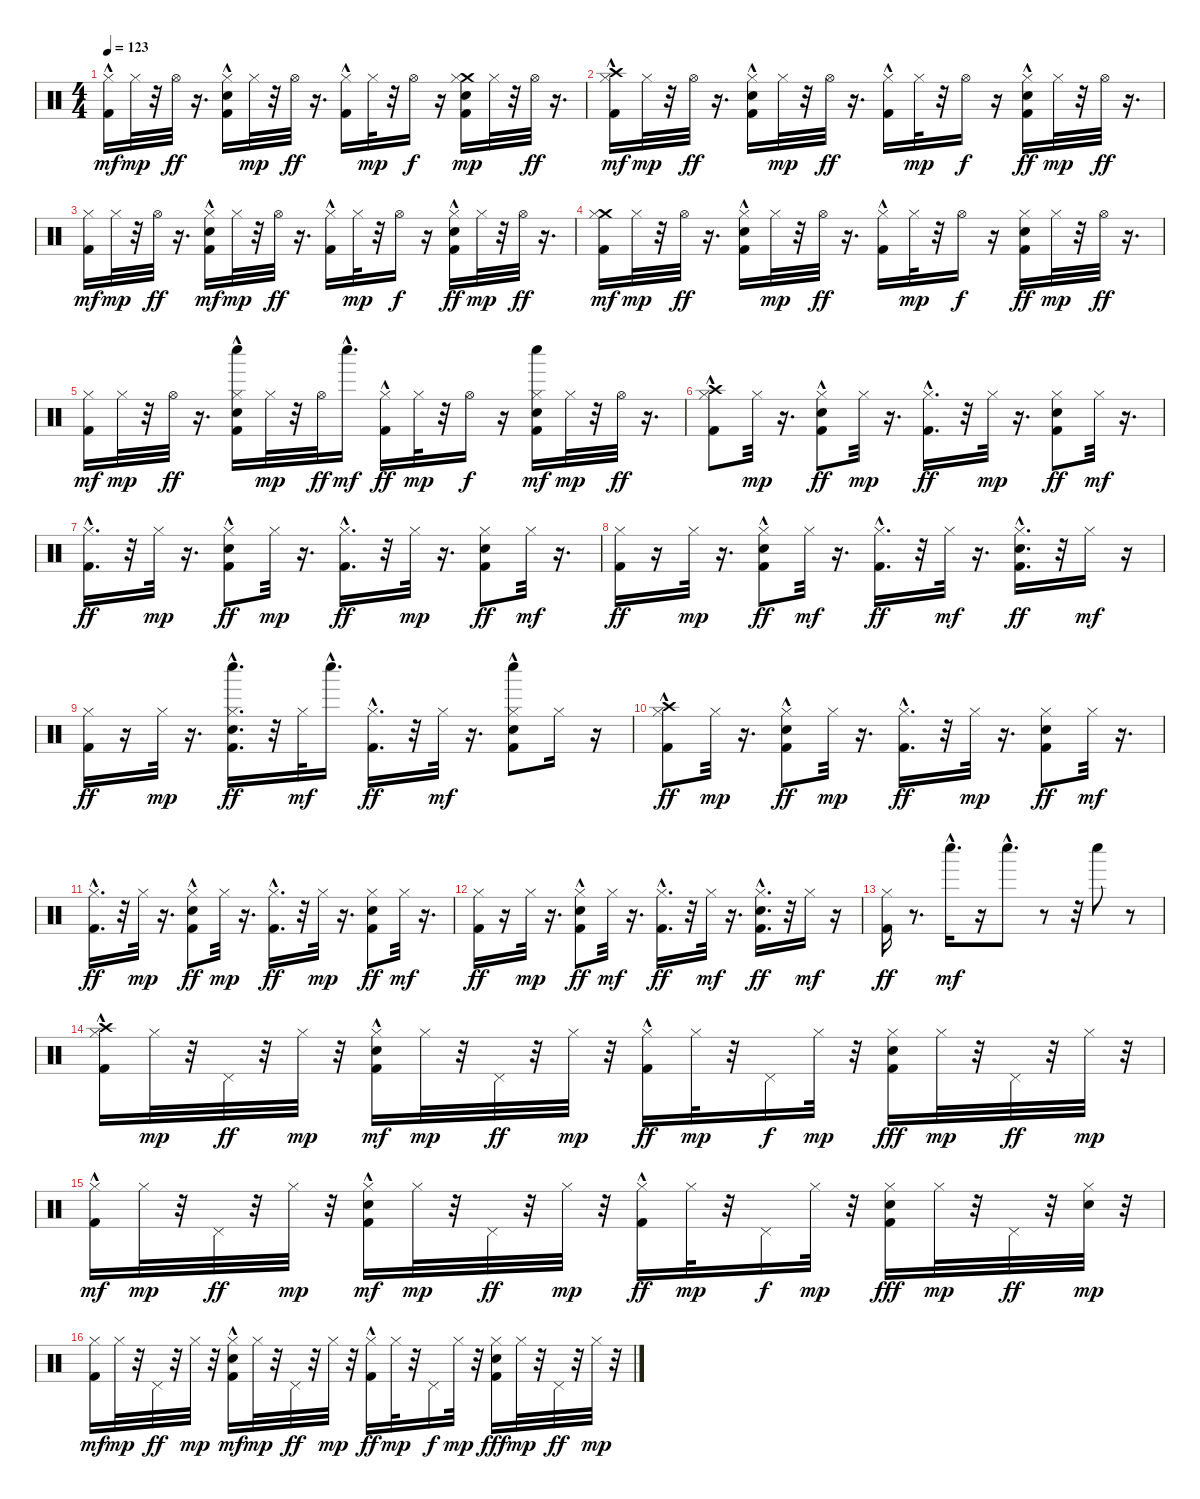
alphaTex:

\track "" {instrument percussion}
\staff {score}
\articulation defaults
\ts (4 4)
\tempo 123
\clef neutral
\ks c
("Kick (hit) 2"{hac} "Hi-Hat (closed)").16{dy mf} "Hi-Hat (closed)".32{dy mp} r.32 "Hi-Hat (open)".32{dy ff} r.16{d} ("Kick (hit) 2"{hac} "Hi-Hat (closed)" "Snare (hit) 2").16 "Hi-Hat (closed)".32{dy mp} r.32 "Hi-Hat (open)".32{dy ff} r.16{d} ("Kick (hit) 2"{hac} "Hi-Hat (closed)").16 "Hi-Hat (closed)".32{dy mp} r.32 "Hi-Hat (open)".16{dy f} r.16 ("Snare (hit) 2" "Kick (hit) 2" "Crash medium (hit)" "Hi-Hat (closed)").16{dy mp} "Hi-Hat (closed)".32 r.32 "Hi-Hat (open)".32{dy ff} r.16{d} |
("Kick (hit) 2"{hac} "Crash high (hit)" "Hi-Hat (closed)").16{dy mf} "Hi-Hat (closed)".32{dy mp} r.32 "Hi-Hat (open)".32{dy ff} r.16{d} ("Kick (hit) 2"{hac} "Hi-Hat (closed)" "Snare (hit) 2").16 "Hi-Hat (closed)".32{dy mp} r.32 "Hi-Hat (open)".32{dy ff} r.16{d} ("Kick (hit) 2"{hac} "Hi-Hat (closed)").16 "Hi-Hat (closed)".32{dy mp} r.32 "Hi-Hat (open)".16{dy f} r.16 ("Snare (hit) 2"{hac} "Kick (hit) 2" "Hi-Hat (closed)").16{dy ff} "Hi-Hat (closed)".32{dy mp} r.32 "Hi-Hat (open)".32{dy ff} r.16{d} |
("Kick (hit) 2" "Hi-Hat (closed)").16{dy mf} "Hi-Hat (closed)".32{dy mp} r.32 "Hi-Hat (open)".32{dy ff} r.16{d} ("Kick (hit) 2"{hac} "Snare (hit) 2"{hac} "Hi-Hat (closed)").16{dy mf} "Hi-Hat (closed)".32{dy mp} r.32 "Hi-Hat (open)".32{dy ff} r.16{d} ("Kick (hit) 2"{hac} "Hi-Hat (closed)").16 "Hi-Hat (closed)".32{dy mp} r.32 "Hi-Hat (open)".16{dy f} r.16 ("Snare (hit) 2"{hac} "Kick (hit) 2" "Hi-Hat (closed)").16{dy ff} "Hi-Hat (closed)".32{dy mp} r.32 "Hi-Hat (open)".32{dy ff} r.16{d} |
("Kick (hit) 2" "Crash medium (hit)" "Hi-Hat (closed)").16{dy mf} "Hi-Hat (closed)".32{dy mp} r.32 "Hi-Hat (open)".32{dy ff} r.16{d} ("Kick (hit) 2"{hac} "Hi-Hat (closed)" "Snare (hit) 2"{hac}).16 "Hi-Hat (closed)".32{dy mp} r.32 "Hi-Hat (open)".32{dy ff} r.16{d} ("Kick (hit) 2"{hac} "Hi-Hat (closed)").16 "Hi-Hat (closed)".32{dy mp} r.32 "Hi-Hat (open)".16{dy f} r.16 ("Snare (hit) 2" "Kick (hit) 2" "Hi-Hat (closed)").16{dy ff} "Hi-Hat (closed)".32{dy mp} r.32 "Hi-Hat (open)".32{dy ff} r.16{d} |
("Kick (hit) 2" "Hi-Hat (closed)").16{dy mf} "Hi-Hat (closed)".32{dy mp} r.32 "Hi-Hat (open)".32{dy ff} r.16{d} ("Whistle low (hit)"{hac} "Kick (hit) 2"{hac} "Hi-Hat (closed)" "Snare (hit) 2"{hac}).16 "Hi-Hat (closed)".32{dy mp} r.32 "Hi-Hat (open)".32{dy ff} "Whistle low (hit)"{hac}.16{d dy mf} ("Kick (hit) 2"{hac} "Hi-Hat (closed)").16{dy ff} "Hi-Hat (closed)".32{dy mp} r.32 "Hi-Hat (open)".16{dy f} r.16 ("Snare (hit) 2" "Kick (hit) 2" "Hi-Hat (closed)" "Whistle low (hit)").16{dy mf} "Hi-Hat (closed)".32{dy mp} r.32 "Hi-Hat (open)".32{dy ff} r.16{d} |
("Kick (hit) 2"{hac} "Crash high (hit)" "Hi-Hat (closed)").8 "Hi-Hat (closed)".32{dy mp} r.16{d} ("Kick (hit) 2"{hac} "Snare (hit) 2" "Hi-Hat (closed)").8{dy ff} "Hi-Hat (closed)".32{dy mp} r.16{d} ("Kick (hit) 2"{hac} "Hi-Hat (closed)").16{d dy ff} r.32 "Hi-Hat (closed)".32{dy mp} r.16{d} ("Kick (hit) 2" "Snare (hit) 2" "Hi-Hat (closed)").8{dy ff} "Hi-Hat (closed)".32{dy mf} r.16{d} |
("Kick (hit) 2"{hac} "Hi-Hat (closed)").16{d dy ff} r.32 "Hi-Hat (closed)".32{dy mp} r.16{d} ("Kick (hit) 2"{hac} "Snare (hit) 2" "Hi-Hat (closed)").8{dy ff} "Hi-Hat (closed)".32{dy mp} r.16{d} ("Kick (hit) 2"{hac} "Hi-Hat (closed)").16{d dy ff} r.32 "Hi-Hat (closed)".32{dy mp} r.16{d} ("Kick (hit) 2" "Snare (hit) 2" "Hi-Hat (closed)").8{dy ff} "Hi-Hat (closed)".32{dy mf} r.16{d} |
("Kick (hit) 2" "Hi-Hat (closed)").16{dy ff} r.16 "Hi-Hat (closed)".32{dy mp} r.16{d} ("Kick (hit) 2"{hac} "Snare (hit) 2" "Hi-Hat (closed)").8{dy ff} "Hi-Hat (closed)".32{dy mf} r.16{d} ("Kick (hit) 2"{hac} "Hi-Hat (closed)").16{d dy ff} r.32 "Hi-Hat (closed)".32{dy mf} r.16{d} ("Kick (hit) 2" "Snare (hit) 2"{hac} "Hi-Hat (closed)").16{d dy ff} r.32 "Hi-Hat (closed)".16{dy mf} r.16 |
("Kick (hit) 2" "Hi-Hat (closed)").16{dy ff} r.16 "Hi-Hat (closed)".32{dy mp} r.16{d} ("Whistle low (hit)"{hac} "Kick (hit) 2"{hac} "Snare (hit) 2"{hac} "Hi-Hat (closed)").16{d dy ff} r.32 "Hi-Hat (closed)".32{dy mf} "Whistle low (hit)"{hac}.16{d} ("Kick (hit) 2"{hac} "Hi-Hat (closed)").16{d dy ff} r.32 "Hi-Hat (closed)".32{dy mf} r.16{d} ("Kick (hit) 2" "Snare (hit) 2"{hac} "Hi-Hat (closed)" "Whistle low (hit)").8 "Hi-Hat (closed)".16 r.16 |
("Kick (hit) 2"{hac} "Crash high (hit)" "Hi-Hat (closed)").8{dy ff} "Hi-Hat (closed)".32{dy mp} r.16{d} ("Kick (hit) 2"{hac} "Snare (hit) 2" "Hi-Hat (closed)").8{dy ff} "Hi-Hat (closed)".32{dy mp} r.16{d} ("Kick (hit) 2"{hac} "Hi-Hat (closed)").16{d dy ff} r.32 "Hi-Hat (closed)".32{dy mp} r.16{d} ("Kick (hit) 2" "Snare (hit) 2" "Hi-Hat (closed)").8{dy ff} "Hi-Hat (closed)".32{dy mf} r.16{d} |
("Kick (hit) 2"{hac} "Hi-Hat (closed)").16{d dy ff} r.32 "Hi-Hat (closed)".32{dy mp} r.16{d} ("Kick (hit) 2"{hac} "Snare (hit) 2" "Hi-Hat (closed)").8{dy ff} "Hi-Hat (closed)".32{dy mp} r.16{d} ("Kick (hit) 2"{hac} "Hi-Hat (closed)").16{d dy ff} r.32 "Hi-Hat (closed)".32{dy mp} r.16{d} ("Kick (hit) 2" "Snare (hit) 2" "Hi-Hat (closed)").8{dy ff} "Hi-Hat (closed)".32{dy mf} r.16{d} |
("Kick (hit) 2" "Hi-Hat (closed)").16{dy ff} r.16 "Hi-Hat (closed)".32{dy mp} r.16{d} ("Kick (hit) 2"{hac} "Snare (hit) 2" "Hi-Hat (closed)").8{dy ff} "Hi-Hat (closed)".32{dy mf} r.16{d} ("Kick (hit) 2"{hac} "Hi-Hat (closed)").16{d dy ff} r.32 "Hi-Hat (closed)".32{dy mf} r.16{d} ("Kick (hit) 2" "Snare (hit) 2"{hac} "Hi-Hat (closed)").16{d dy ff} r.32 "Hi-Hat (closed)".16{dy mf} r.16 |
("Kick (hit) 2" "Hi-Hat (closed)").16{dy ff} r.8{d} "Whistle low (hit)"{hac}.16{d dy mf} r.16 "Whistle low (hit)"{hac}.8{d} r.8 r.32 "Whistle low (hit)".8 r.8 |
("Kick (hit) 2"{hac} "Crash high (hit)" "Hi-Hat (closed)").16 "Hi-Hat (closed)".32{dy mp} r.32 "Pedal Hi-Hat (hit)".32{dy ff} r.32 "Hi-Hat (closed)".32{dy mp} r.32 ("Kick (hit) 2"{hac} "Snare (hit) 2" "Hi-Hat (closed)").16{dy mf} "Hi-Hat (closed)".32{dy mp} r.32 "Pedal Hi-Hat (hit)".32{dy ff} r.32 "Hi-Hat (closed)".32{dy mp} r.32 ("Kick (hit) 2"{hac} "Hi-Hat (closed)").16{dy ff} "Hi-Hat (closed)".32{dy mp} r.32 "Pedal Hi-Hat (hit)".16{dy f} "Hi-Hat (closed)".32{dy mp} r.32 ("Kick (hit) 2" "Snare (hit) 2" "Hi-Hat (closed)").16{dy fff} "Hi-Hat (closed)".32{dy mp} r.32 "Pedal Hi-Hat (hit)".32{dy ff} r.32 "Hi-Hat (closed)".32{dy mp} r.32 |
("Kick (hit) 2"{hac} "Hi-Hat (closed)").16{dy mf} "Hi-Hat (closed)".32{dy mp} r.32 "Pedal Hi-Hat (hit)".32{dy ff} r.32 "Hi-Hat (closed)".32{dy mp} r.32 ("Kick (hit) 2"{hac} "Snare (hit) 2" "Hi-Hat (closed)").16{dy mf} "Hi-Hat (closed)".32{dy mp} r.32 "Pedal Hi-Hat (hit)".32{dy ff} r.32 "Hi-Hat (closed)".32{dy mp} r.32 ("Kick (hit) 2"{hac} "Hi-Hat (closed)").16{dy ff} "Hi-Hat (closed)".32{dy mp} r.32 "Pedal Hi-Hat (hit)".16{dy f} "Hi-Hat (closed)".32{dy mp} r.32 ("Kick (hit) 2" "Snare (hit) 2" "Hi-Hat (closed)").16{dy fff} "Hi-Hat (closed)".32{dy mp} r.32 "Pedal Hi-Hat (hit)".32{dy ff} r.32 ("Hi-Hat (closed)" "Snare (hit) 2").32{dy mp} r.32 |
("Kick (hit) 2" "Hi-Hat (closed)").16{dy mf} "Hi-Hat (closed)".32{dy mp} r.32 "Pedal Hi-Hat (hit)".32{dy ff} r.32 "Hi-Hat (closed)".32{dy mp} r.32 ("Kick (hit) 2"{hac} "Snare (hit) 2" "Hi-Hat (closed)").16{dy mf} "Hi-Hat (closed)".32{dy mp} r.32 "Pedal Hi-Hat (hit)".32{dy ff} r.32 "Hi-Hat (closed)".32{dy mp} r.32 ("Kick (hit) 2"{hac} "Hi-Hat (closed)").16{dy ff} "Hi-Hat (closed)".32{dy mp} r.32 "Pedal Hi-Hat (hit)".16{dy f} "Hi-Hat (closed)".32{dy mp} r.32 ("Kick (hit) 2" "Snare (hit) 2" "Hi-Hat (closed)").16{dy fff} "Hi-Hat (closed)".32{dy mp} r.32 "Pedal Hi-Hat (hit)".32{dy ff} r.32 "Hi-Hat (closed)".32{dy mp} r.32
